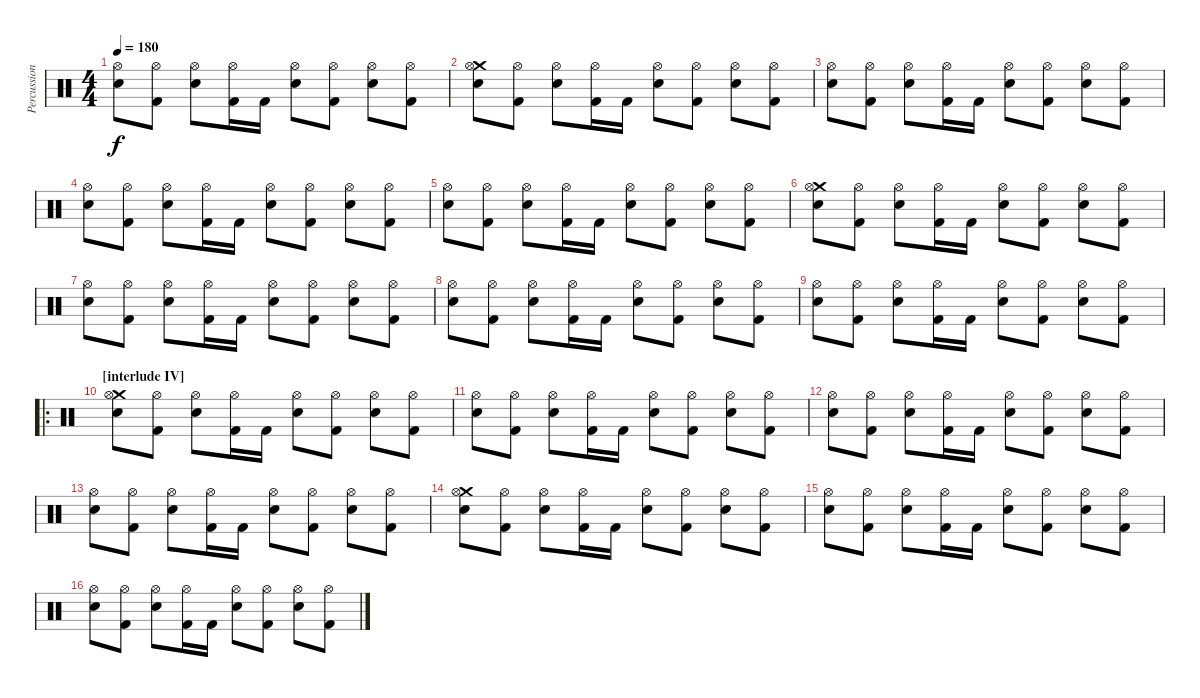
\track ("Percussion" "Percussion") {instrument percussion}
\staff {score}
\articulation defaults
\ts (4 4)
\tempo 180
\clef neutral
\ks c
("Hi-Hat (open)" "Electric Snare (hit)").8{dy f} ("Hi-Hat (open)" "Kick (hit) 2").8 ("Hi-Hat (open)" "Electric Snare (hit)").8 ("Hi-Hat (open)" "Kick (hit) 2").16 "Kick (hit) 2".16 ("Hi-Hat (open)" "Electric Snare (hit)").8 ("Hi-Hat (open)" "Kick (hit) 2").8 ("Hi-Hat (open)" "Electric Snare (hit)").8 ("Hi-Hat (open)" "Kick (hit) 2").8 |
("Crash medium (hit)" "Hi-Hat (open)" "Electric Snare (hit)").8 ("Hi-Hat (open)" "Kick (hit) 2").8 ("Hi-Hat (open)" "Electric Snare (hit)").8 ("Hi-Hat (open)" "Kick (hit) 2").16 "Kick (hit) 2".16 ("Hi-Hat (open)" "Electric Snare (hit)").8 ("Hi-Hat (open)" "Kick (hit) 2").8 ("Hi-Hat (open)" "Electric Snare (hit)").8 ("Hi-Hat (open)" "Kick (hit) 2").8 |
("Hi-Hat (open)" "Electric Snare (hit)").8 ("Hi-Hat (open)" "Kick (hit) 2").8 ("Hi-Hat (open)" "Electric Snare (hit)").8 ("Hi-Hat (open)" "Kick (hit) 2").16 "Kick (hit) 2".16 ("Hi-Hat (open)" "Electric Snare (hit)").8 ("Hi-Hat (open)" "Kick (hit) 2").8 ("Hi-Hat (open)" "Electric Snare (hit)").8 ("Hi-Hat (open)" "Kick (hit) 2").8 |
("Hi-Hat (open)" "Electric Snare (hit)").8 ("Hi-Hat (open)" "Kick (hit) 2").8 ("Hi-Hat (open)" "Electric Snare (hit)").8 ("Hi-Hat (open)" "Kick (hit) 2").16 "Kick (hit) 2".16 ("Hi-Hat (open)" "Electric Snare (hit)").8 ("Hi-Hat (open)" "Kick (hit) 2").8 ("Hi-Hat (open)" "Electric Snare (hit)").8 ("Hi-Hat (open)" "Kick (hit) 2").8 |
("Hi-Hat (open)" "Electric Snare (hit)").8 ("Hi-Hat (open)" "Kick (hit) 2").8 ("Hi-Hat (open)" "Electric Snare (hit)").8 ("Hi-Hat (open)" "Kick (hit) 2").16 "Kick (hit) 2".16 ("Hi-Hat (open)" "Electric Snare (hit)").8 ("Hi-Hat (open)" "Kick (hit) 2").8 ("Hi-Hat (open)" "Electric Snare (hit)").8 ("Hi-Hat (open)" "Kick (hit) 2").8 |
("Crash medium (hit)" "Hi-Hat (open)" "Electric Snare (hit)").8 ("Hi-Hat (open)" "Kick (hit) 2").8 ("Hi-Hat (open)" "Electric Snare (hit)").8 ("Hi-Hat (open)" "Kick (hit) 2").16 "Kick (hit) 2".16 ("Hi-Hat (open)" "Electric Snare (hit)").8 ("Hi-Hat (open)" "Kick (hit) 2").8 ("Hi-Hat (open)" "Electric Snare (hit)").8 ("Hi-Hat (open)" "Kick (hit) 2").8 |
("Hi-Hat (open)" "Electric Snare (hit)").8 ("Hi-Hat (open)" "Kick (hit) 2").8 ("Hi-Hat (open)" "Electric Snare (hit)").8 ("Hi-Hat (open)" "Kick (hit) 2").16 "Kick (hit) 2".16 ("Hi-Hat (open)" "Electric Snare (hit)").8 ("Hi-Hat (open)" "Kick (hit) 2").8 ("Hi-Hat (open)" "Electric Snare (hit)").8 ("Hi-Hat (open)" "Kick (hit) 2").8 |
("Hi-Hat (open)" "Electric Snare (hit)").8 ("Hi-Hat (open)" "Kick (hit) 2").8 ("Hi-Hat (open)" "Electric Snare (hit)").8 ("Hi-Hat (open)" "Kick (hit) 2").16 "Kick (hit) 2".16 ("Hi-Hat (open)" "Electric Snare (hit)").8 ("Hi-Hat (open)" "Kick (hit) 2").8 ("Hi-Hat (open)" "Electric Snare (hit)").8 ("Hi-Hat (open)" "Kick (hit) 2").8 |
("Hi-Hat (open)" "Electric Snare (hit)").8 ("Hi-Hat (open)" "Kick (hit) 2").8 ("Hi-Hat (open)" "Electric Snare (hit)").8 ("Hi-Hat (open)" "Kick (hit) 2").16 "Kick (hit) 2".16 ("Hi-Hat (open)" "Electric Snare (hit)").8 ("Hi-Hat (open)" "Kick (hit) 2").8 ("Hi-Hat (open)" "Electric Snare (hit)").8 ("Hi-Hat (open)" "Kick (hit) 2").8 |
\ro
\section ("" "[interlude IV]")
("Crash medium (hit)" "Hi-Hat (open)" "Electric Snare (hit)").8 ("Hi-Hat (open)" "Kick (hit) 2").8 ("Hi-Hat (open)" "Electric Snare (hit)").8 ("Hi-Hat (open)" "Kick (hit) 2").16 "Kick (hit) 2".16 ("Hi-Hat (open)" "Electric Snare (hit)").8 ("Hi-Hat (open)" "Kick (hit) 2").8 ("Hi-Hat (open)" "Electric Snare (hit)").8 ("Hi-Hat (open)" "Kick (hit) 2").8 |
("Hi-Hat (open)" "Electric Snare (hit)").8 ("Hi-Hat (open)" "Kick (hit) 2").8 ("Hi-Hat (open)" "Electric Snare (hit)").8 ("Hi-Hat (open)" "Kick (hit) 2").16 "Kick (hit) 2".16 ("Hi-Hat (open)" "Electric Snare (hit)").8 ("Hi-Hat (open)" "Kick (hit) 2").8 ("Hi-Hat (open)" "Electric Snare (hit)").8 ("Hi-Hat (open)" "Kick (hit) 2").8 |
("Hi-Hat (open)" "Electric Snare (hit)").8 ("Hi-Hat (open)" "Kick (hit) 2").8 ("Hi-Hat (open)" "Electric Snare (hit)").8 ("Hi-Hat (open)" "Kick (hit) 2").16 "Kick (hit) 2".16 ("Hi-Hat (open)" "Electric Snare (hit)").8 ("Hi-Hat (open)" "Kick (hit) 2").8 ("Hi-Hat (open)" "Electric Snare (hit)").8 ("Hi-Hat (open)" "Kick (hit) 2").8 |
("Hi-Hat (open)" "Electric Snare (hit)").8 ("Hi-Hat (open)" "Kick (hit) 2").8 ("Hi-Hat (open)" "Electric Snare (hit)").8 ("Hi-Hat (open)" "Kick (hit) 2").16 "Kick (hit) 2".16 ("Hi-Hat (open)" "Electric Snare (hit)").8 ("Hi-Hat (open)" "Kick (hit) 2").8 ("Hi-Hat (open)" "Electric Snare (hit)").8 ("Hi-Hat (open)" "Kick (hit) 2").8 |
("Crash medium (hit)" "Hi-Hat (open)" "Electric Snare (hit)").8 ("Hi-Hat (open)" "Kick (hit) 2").8 ("Hi-Hat (open)" "Electric Snare (hit)").8 ("Hi-Hat (open)" "Kick (hit) 2").16 "Kick (hit) 2".16 ("Hi-Hat (open)" "Electric Snare (hit)").8 ("Hi-Hat (open)" "Kick (hit) 2").8 ("Hi-Hat (open)" "Electric Snare (hit)").8 ("Hi-Hat (open)" "Kick (hit) 2").8 |
("Hi-Hat (open)" "Electric Snare (hit)").8 ("Hi-Hat (open)" "Kick (hit) 2").8 ("Hi-Hat (open)" "Electric Snare (hit)").8 ("Hi-Hat (open)" "Kick (hit) 2").16 "Kick (hit) 2".16 ("Hi-Hat (open)" "Electric Snare (hit)").8 ("Hi-Hat (open)" "Kick (hit) 2").8 ("Hi-Hat (open)" "Electric Snare (hit)").8 ("Hi-Hat (open)" "Kick (hit) 2").8 |
("Hi-Hat (open)" "Electric Snare (hit)").8 ("Hi-Hat (open)" "Kick (hit) 2").8 ("Hi-Hat (open)" "Electric Snare (hit)").8 ("Hi-Hat (open)" "Kick (hit) 2").16 "Kick (hit) 2".16 ("Hi-Hat (open)" "Electric Snare (hit)").8 ("Hi-Hat (open)" "Kick (hit) 2").8 ("Hi-Hat (open)" "Electric Snare (hit)").8 ("Hi-Hat (open)" "Kick (hit) 2").8
